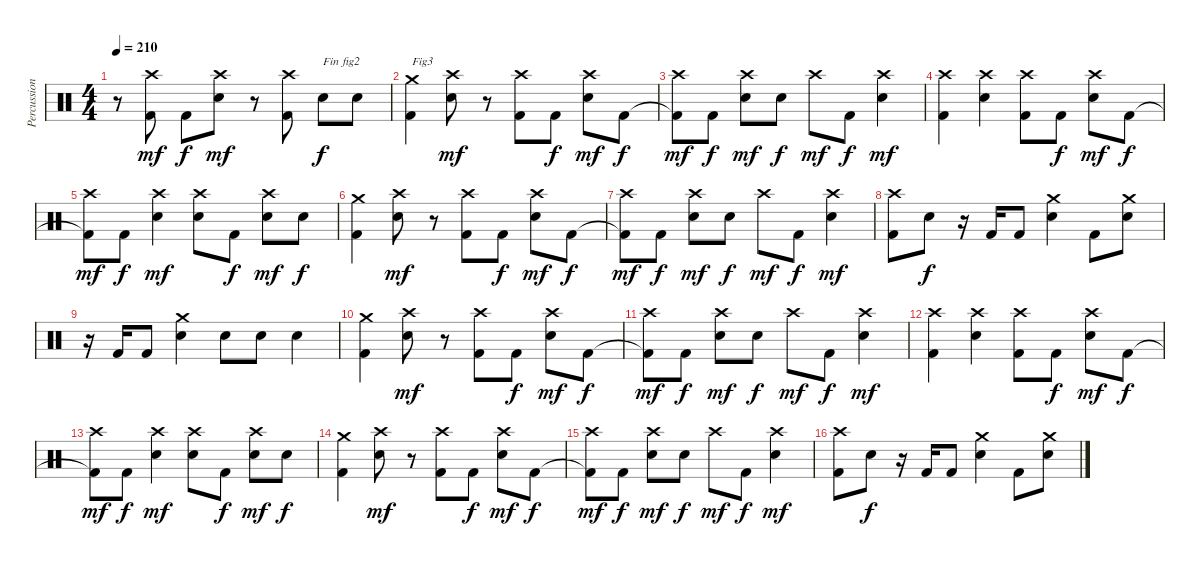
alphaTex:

\track ("Percussions" "Percussion") {instrument percussion}
\staff {score}
\articulation defaults
\ts (4 4)
\tempo 210
\clef neutral
\ks c
r.8{dy mf} ("Kick (hit) 2" "Crash high (hit)").8 "Kick (hit) 2".8{dy f} ("Electric Snare (hit)" "Crash high (hit)").8{dy mf} r.8 ("Kick (hit) 2" "Crash high (hit)").8 "Electric Snare (hit)".8{txt "Fin fig2" dy f} "Electric Snare (hit)".8 |
("Kick (hit) 2" "Crash medium (hit)").4{txt "Fig3"} ("Electric Snare (hit)" "Crash high (hit)").8{dy mf} r.8 ("Kick (hit) 2" "Crash high (hit)").8 "Kick (hit) 2".8{dy f} ("Electric Snare (hit)" "Crash high (hit)").8{dy mf} "Kick (hit) 2".8{dy f} |
("Kick (hit) 2"{t} "Crash high (hit)").8{dy mf} "Kick (hit) 2".8{dy f} ("Electric Snare (hit)" "Crash high (hit)").8{dy mf} "Electric Snare (hit)".8{dy f} "Crash high (hit)".8{dy mf} "Kick (hit) 2".8{dy f} ("Electric Snare (hit)" "Crash high (hit)").4{dy mf} |
("Kick (hit) 2" "Crash high (hit)").4 ("Electric Snare (hit)" "Crash high (hit)").4 ("Kick (hit) 2" "Crash high (hit)").8 "Kick (hit) 2".8{dy f} ("Electric Snare (hit)" "Crash high (hit)").8{dy mf} "Kick (hit) 2".8{dy f} |
("Kick (hit) 2"{t} "Crash high (hit)").8{dy mf} "Kick (hit) 2".8{dy f} ("Electric Snare (hit)" "Crash high (hit)").4{dy mf} ("Electric Snare (hit)" "Crash high (hit)").8 "Kick (hit) 2".8{dy f} ("Electric Snare (hit)" "Crash high (hit)").8{dy mf} "Electric Snare (hit)".8{dy f} |
("Kick (hit) 2" "Crash medium (hit)").4 ("Electric Snare (hit)" "Crash high (hit)").8{dy mf} r.8 ("Kick (hit) 2" "Crash high (hit)").8 "Kick (hit) 2".8{dy f} ("Electric Snare (hit)" "Crash high (hit)").8{dy mf} "Kick (hit) 2".8{dy f} |
("Kick (hit) 2"{t} "Crash high (hit)").8{dy mf} "Kick (hit) 2".8{dy f} ("Electric Snare (hit)" "Crash high (hit)").8{dy mf} "Electric Snare (hit)".8{dy f} "Crash high (hit)".8{dy mf} "Kick (hit) 2".8{dy f} ("Electric Snare (hit)" "Crash high (hit)").4{dy mf} |
("Kick (hit) 2" "Crash high (hit)").8 "Electric Snare (hit)".8{dy f} r.16 "Kick (hit) 2".16 "Kick (hit) 2".8 ("Electric Snare (hit)" "Crash medium (hit)").4 "Kick (hit) 2".8 ("Electric Snare (hit)" "Crash medium (hit)").8 |
r.16 "Kick (hit) 2".16 "Kick (hit) 2".8 ("Electric Snare (hit)" "Crash medium (hit)").4 "Electric Snare (hit)".8 "Electric Snare (hit)".8 "Electric Snare (hit)".4 |
("Kick (hit) 2" "Crash medium (hit)").4 ("Electric Snare (hit)" "Crash high (hit)").8{dy mf} r.8 ("Kick (hit) 2" "Crash high (hit)").8 "Kick (hit) 2".8{dy f} ("Electric Snare (hit)" "Crash high (hit)").8{dy mf} "Kick (hit) 2".8{dy f} |
("Kick (hit) 2"{t} "Crash high (hit)").8{dy mf} "Kick (hit) 2".8{dy f} ("Electric Snare (hit)" "Crash high (hit)").8{dy mf} "Electric Snare (hit)".8{dy f} "Crash high (hit)".8{dy mf} "Kick (hit) 2".8{dy f} ("Electric Snare (hit)" "Crash high (hit)").4{dy mf} |
("Kick (hit) 2" "Crash high (hit)").4 ("Electric Snare (hit)" "Crash high (hit)").4 ("Kick (hit) 2" "Crash high (hit)").8 "Kick (hit) 2".8{dy f} ("Electric Snare (hit)" "Crash high (hit)").8{dy mf} "Kick (hit) 2".8{dy f} |
("Kick (hit) 2"{t} "Crash high (hit)").8{dy mf} "Kick (hit) 2".8{dy f} ("Electric Snare (hit)" "Crash high (hit)").4{dy mf} ("Electric Snare (hit)" "Crash high (hit)").8 "Kick (hit) 2".8{dy f} ("Electric Snare (hit)" "Crash high (hit)").8{dy mf} "Electric Snare (hit)".8{dy f} |
("Kick (hit) 2" "Crash medium (hit)").4 ("Electric Snare (hit)" "Crash high (hit)").8{dy mf} r.8 ("Kick (hit) 2" "Crash high (hit)").8 "Kick (hit) 2".8{dy f} ("Electric Snare (hit)" "Crash high (hit)").8{dy mf} "Kick (hit) 2".8{dy f} |
("Kick (hit) 2"{t} "Crash high (hit)").8{dy mf} "Kick (hit) 2".8{dy f} ("Electric Snare (hit)" "Crash high (hit)").8{dy mf} "Electric Snare (hit)".8{dy f} "Crash high (hit)".8{dy mf} "Kick (hit) 2".8{dy f} ("Electric Snare (hit)" "Crash high (hit)").4{dy mf} |
("Kick (hit) 2" "Crash high (hit)").8 "Electric Snare (hit)".8{dy f} r.16 "Kick (hit) 2".16 "Kick (hit) 2".8 ("Electric Snare (hit)" "Crash medium (hit)").4 "Kick (hit) 2".8 ("Electric Snare (hit)" "Crash medium (hit)").8
